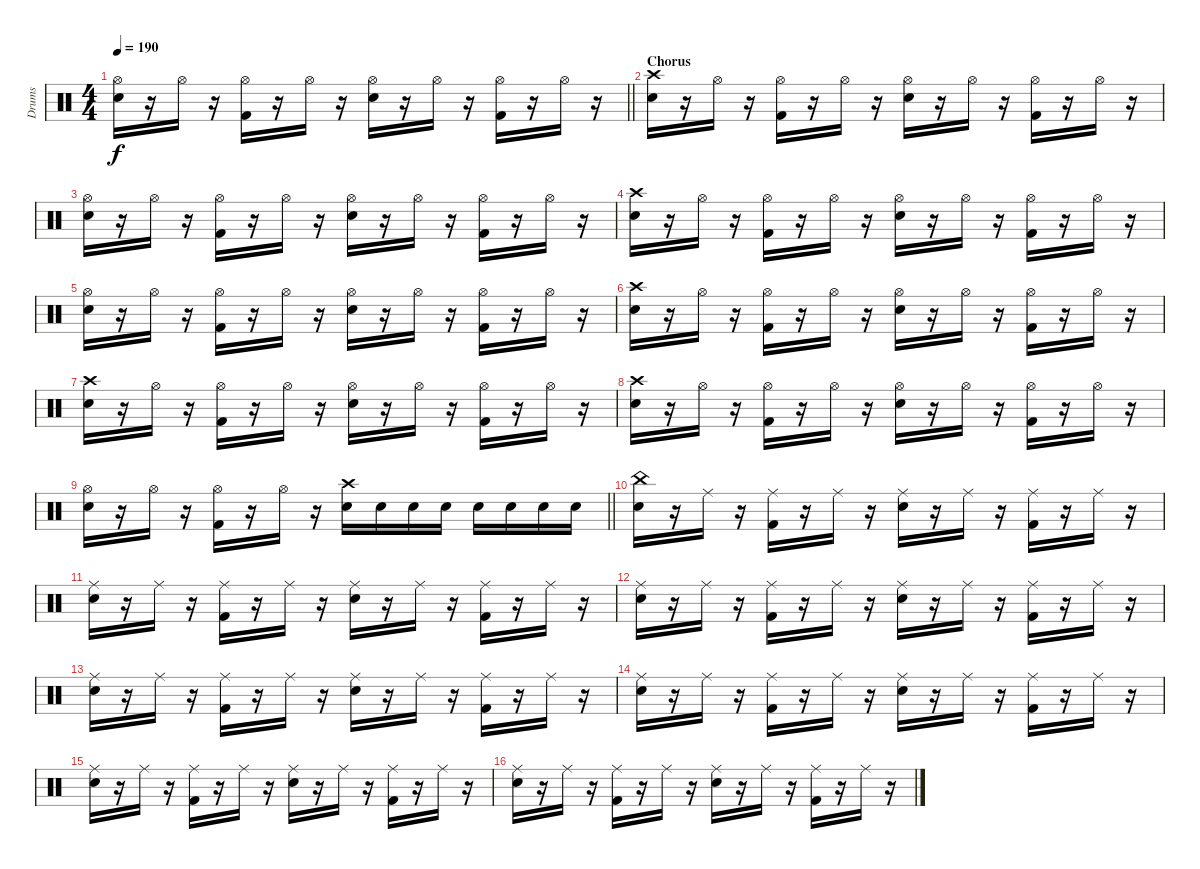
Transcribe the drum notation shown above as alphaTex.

\track ("Drums" "Drums") {instrument percussion}
\staff {score}
\articulation defaults
\ts (4 4)
\tempo 190
\clef neutral
\barLineRight lightlight
\ks c
("Hi-Hat (open)" "Electric Snare (hit)").16{dy f} r.16 "Hi-Hat (open)".16 r.16 ("Hi-Hat (open)" "Kick (hit) 2").16 r.16 "Hi-Hat (open)".16 r.16 ("Hi-Hat (open)" "Electric Snare (hit)").16 r.16 "Hi-Hat (open)".16 r.16 ("Hi-Hat (open)" "Kick (hit) 2").16 r.16 "Hi-Hat (open)".16 r.16 |
\section ("" "Chorus")
("Crash high (hit)" "Electric Snare (hit)").16 r.16 "Hi-Hat (open)".16 r.16 ("Hi-Hat (open)" "Kick (hit) 2").16 r.16 "Hi-Hat (open)".16 r.16 ("Hi-Hat (open)" "Electric Snare (hit)").16 r.16 "Hi-Hat (open)".16 r.16 ("Hi-Hat (open)" "Kick (hit) 2").16 r.16 "Hi-Hat (open)".16 r.16 |
("Hi-Hat (open)" "Electric Snare (hit)").16 r.16 "Hi-Hat (open)".16 r.16 ("Hi-Hat (open)" "Kick (hit) 2").16 r.16 "Hi-Hat (open)".16 r.16 ("Hi-Hat (open)" "Electric Snare (hit)").16 r.16 "Hi-Hat (open)".16 r.16 ("Hi-Hat (open)" "Kick (hit) 2").16 r.16 "Hi-Hat (open)".16 r.16 |
("Crash high (hit)" "Electric Snare (hit)").16 r.16 "Hi-Hat (open)".16 r.16 ("Hi-Hat (open)" "Kick (hit) 2").16 r.16 "Hi-Hat (open)".16 r.16 ("Hi-Hat (open)" "Electric Snare (hit)").16 r.16 "Hi-Hat (open)".16 r.16 ("Hi-Hat (open)" "Kick (hit) 2").16 r.16 "Hi-Hat (open)".16 r.16 |
("Hi-Hat (open)" "Electric Snare (hit)").16 r.16 "Hi-Hat (open)".16 r.16 ("Hi-Hat (open)" "Kick (hit) 2").16 r.16 "Hi-Hat (open)".16 r.16 ("Hi-Hat (open)" "Electric Snare (hit)").16 r.16 "Hi-Hat (open)".16 r.16 ("Hi-Hat (open)" "Kick (hit) 2").16 r.16 "Hi-Hat (open)".16 r.16 |
("Crash high (hit)" "Electric Snare (hit)").16 r.16 "Hi-Hat (open)".16 r.16 ("Hi-Hat (open)" "Kick (hit) 2").16 r.16 "Hi-Hat (open)".16 r.16 ("Hi-Hat (open)" "Electric Snare (hit)").16 r.16 "Hi-Hat (open)".16 r.16 ("Hi-Hat (open)" "Kick (hit) 2").16 r.16 "Hi-Hat (open)".16 r.16 |
("Crash high (hit)" "Electric Snare (hit)").16 r.16 "Hi-Hat (open)".16 r.16 ("Hi-Hat (open)" "Kick (hit) 2").16 r.16 "Hi-Hat (open)".16 r.16 ("Hi-Hat (open)" "Electric Snare (hit)").16 r.16 "Hi-Hat (open)".16 r.16 ("Hi-Hat (open)" "Kick (hit) 2").16 r.16 "Hi-Hat (open)".16 r.16 |
("Crash high (hit)" "Electric Snare (hit)").16 r.16 "Hi-Hat (open)".16 r.16 ("Hi-Hat (open)" "Kick (hit) 2").16 r.16 "Hi-Hat (open)".16 r.16 ("Hi-Hat (open)" "Electric Snare (hit)").16 r.16 "Hi-Hat (open)".16 r.16 ("Hi-Hat (open)" "Kick (hit) 2").16 r.16 "Hi-Hat (open)".16 r.16 |
\barLineRight lightlight
("Hi-Hat (open)" "Electric Snare (hit)").16 r.16 "Hi-Hat (open)".16 r.16 ("Hi-Hat (open)" "Kick (hit) 2").16 r.16 "Hi-Hat (open)".16 r.16 ("Crash high (hit)" "Electric Snare (hit)").16 "Electric Snare (hit)".16 "Electric Snare (hit)".16 "Electric Snare (hit)".16 "Electric Snare (hit)".16 "Electric Snare (hit)".16 "Electric Snare (hit)".16 "Electric Snare (hit)".16 |
("China (hit)" "Electric Snare (hit)").16 r.16 "Ride (middle)".16 r.16 ("Ride (middle)" "Kick (hit) 2").16 r.16 "Ride (middle)".16 r.16 ("Ride (middle)" "Electric Snare (hit)").16 r.16 "Ride (middle)".16 r.16 ("Ride (middle)" "Kick (hit) 2").16 r.16 "Ride (middle)".16 r.16 |
("Ride (middle)" "Electric Snare (hit)").16 r.16 "Ride (middle)".16 r.16 ("Ride (middle)" "Kick (hit) 2").16 r.16 "Ride (middle)".16 r.16 ("Ride (middle)" "Electric Snare (hit)").16 r.16 "Ride (middle)".16 r.16 ("Ride (middle)" "Kick (hit) 2").16 r.16 "Ride (middle)".16 r.16 |
("Ride (middle)" "Electric Snare (hit)").16 r.16 "Ride (middle)".16 r.16 ("Ride (middle)" "Kick (hit) 2").16 r.16 "Ride (middle)".16 r.16 ("Ride (middle)" "Electric Snare (hit)").16 r.16 "Ride (middle)".16 r.16 ("Ride (middle)" "Kick (hit) 2").16 r.16 "Ride (middle)".16 r.16 |
("Ride (middle)" "Electric Snare (hit)").16 r.16 "Ride (middle)".16 r.16 ("Ride (middle)" "Kick (hit) 2").16 r.16 "Ride (middle)".16 r.16 ("Ride (middle)" "Electric Snare (hit)").16 r.16 "Ride (middle)".16 r.16 ("Ride (middle)" "Kick (hit) 2").16 r.16 "Ride (middle)".16 r.16 |
("Ride (middle)" "Electric Snare (hit)").16 r.16 "Ride (middle)".16 r.16 ("Ride (middle)" "Kick (hit) 2").16 r.16 "Ride (middle)".16 r.16 ("Ride (middle)" "Electric Snare (hit)").16 r.16 "Ride (middle)".16 r.16 ("Ride (middle)" "Kick (hit) 2").16 r.16 "Ride (middle)".16 r.16 |
("Ride (middle)" "Electric Snare (hit)").16 r.16 "Ride (middle)".16 r.16 ("Ride (middle)" "Kick (hit) 2").16 r.16 "Ride (middle)".16 r.16 ("Ride (middle)" "Electric Snare (hit)").16 r.16 "Ride (middle)".16 r.16 ("Ride (middle)" "Kick (hit) 2").16 r.16 "Ride (middle)".16 r.16 |
("Ride (middle)" "Electric Snare (hit)").16 r.16 "Ride (middle)".16 r.16 ("Ride (middle)" "Kick (hit) 2").16 r.16 "Ride (middle)".16 r.16 ("Ride (middle)" "Electric Snare (hit)").16 r.16 "Ride (middle)".16 r.16 ("Ride (middle)" "Kick (hit) 2").16 r.16 "Ride (middle)".16 r.16
